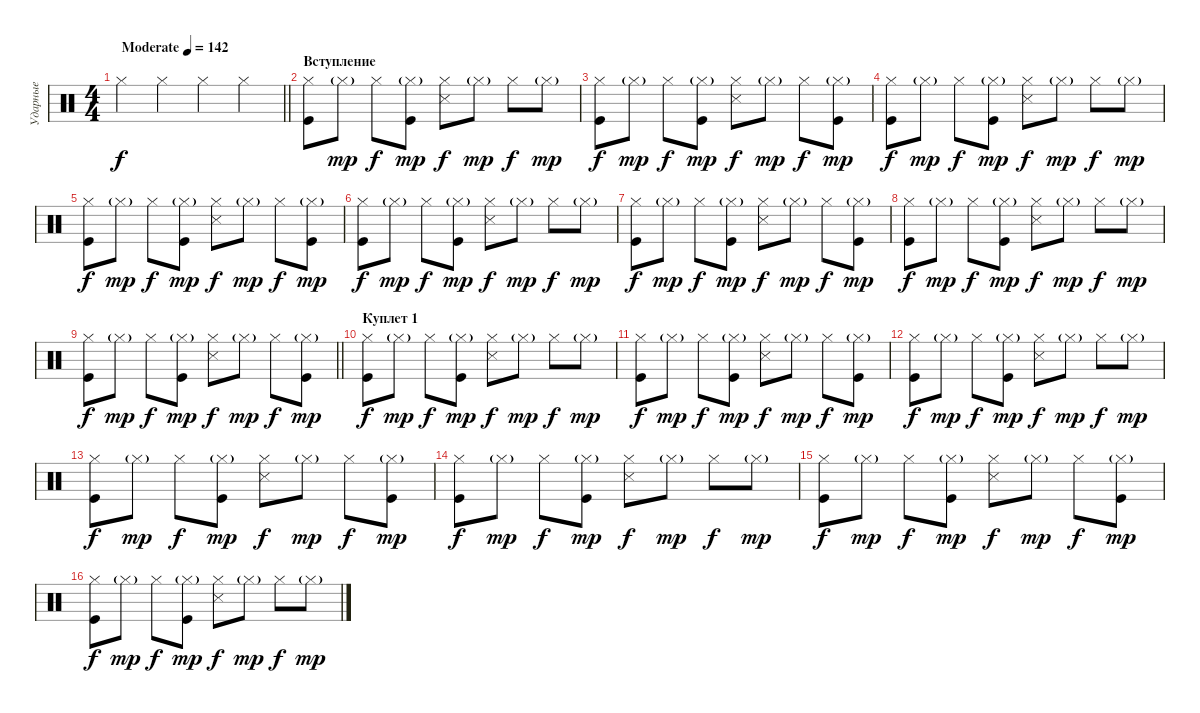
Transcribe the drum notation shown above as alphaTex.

\track ("Ударные" "Ударные") {instrument percussion}
\staff {score}
\articulation defaults
\ts (4 4)
\tempo (142 "Moderate")
\clef neutral
\barLineRight lightlight
\ks c "Hi-Hat (closed)".4{dy f} "Hi-Hat (closed)".4 "Hi-Hat (closed)".4 "Hi-Hat (closed)".4
|
\section ("" "Вступление")
("Hi-Hat (closed)" "Kick (hit)").8 "Hi-Hat (closed)"{g}.8{dy mp} "Hi-Hat (closed)".8{dy f} ("Hi-Hat (closed)"{g} "Kick (hit)").8{dy mp} ("Hi-Hat (closed)" "Snare (side stick) 3").8{dy f} "Hi-Hat (closed)"{g}.8{dy mp} "Hi-Hat (closed)".8{dy f} "Hi-Hat (closed)"{g}.8{dy mp} |
("Hi-Hat (closed)" "Kick (hit)").8{dy f} "Hi-Hat (closed)"{g}.8{dy mp} "Hi-Hat (closed)".8{dy f} ("Hi-Hat (closed)"{g} "Kick (hit)").8{dy mp} ("Hi-Hat (closed)" "Snare (side stick) 3").8{dy f} "Hi-Hat (closed)"{g}.8{dy mp} "Hi-Hat (closed)".8{dy f} ("Hi-Hat (closed)"{g} "Kick (hit)").8{dy mp} |
("Hi-Hat (closed)" "Kick (hit)").8{dy f} "Hi-Hat (closed)"{g}.8{dy mp} "Hi-Hat (closed)".8{dy f} ("Hi-Hat (closed)"{g} "Kick (hit)").8{dy mp} ("Hi-Hat (closed)" "Snare (side stick) 3").8{dy f} "Hi-Hat (closed)"{g}.8{dy mp} "Hi-Hat (closed)".8{dy f} "Hi-Hat (closed)"{g}.8{dy mp} |
("Hi-Hat (closed)" "Kick (hit)").8{dy f} "Hi-Hat (closed)"{g}.8{dy mp} "Hi-Hat (closed)".8{dy f} ("Hi-Hat (closed)"{g} "Kick (hit)").8{dy mp} ("Hi-Hat (closed)" "Snare (side stick) 3").8{dy f} "Hi-Hat (closed)"{g}.8{dy mp} "Hi-Hat (closed)".8{dy f} ("Hi-Hat (closed)"{g} "Kick (hit)").8{dy mp} |
("Hi-Hat (closed)" "Kick (hit)").8{dy f} "Hi-Hat (closed)"{g}.8{dy mp} "Hi-Hat (closed)".8{dy f} ("Hi-Hat (closed)"{g} "Kick (hit)").8{dy mp} ("Hi-Hat (closed)" "Snare (side stick) 3").8{dy f} "Hi-Hat (closed)"{g}.8{dy mp} "Hi-Hat (closed)".8{dy f} "Hi-Hat (closed)"{g}.8{dy mp} |
("Hi-Hat (closed)" "Kick (hit)").8{dy f} "Hi-Hat (closed)"{g}.8{dy mp} "Hi-Hat (closed)".8{dy f} ("Hi-Hat (closed)"{g} "Kick (hit)").8{dy mp} ("Hi-Hat (closed)" "Snare (side stick) 3").8{dy f} "Hi-Hat (closed)"{g}.8{dy mp} "Hi-Hat (closed)".8{dy f} ("Hi-Hat (closed)"{g} "Kick (hit)").8{dy mp} |
("Hi-Hat (closed)" "Kick (hit)").8{dy f} "Hi-Hat (closed)"{g}.8{dy mp} "Hi-Hat (closed)".8{dy f} ("Hi-Hat (closed)"{g} "Kick (hit)").8{dy mp} ("Hi-Hat (closed)" "Snare (side stick) 3").8{dy f} "Hi-Hat (closed)"{g}.8{dy mp} "Hi-Hat (closed)".8{dy f} "Hi-Hat (closed)"{g}.8{dy mp} |
\barLineRight lightlight
("Hi-Hat (closed)" "Kick (hit)").8{dy f} "Hi-Hat (closed)"{g}.8{dy mp} "Hi-Hat (closed)".8{dy f} ("Hi-Hat (closed)"{g} "Kick (hit)").8{dy mp} ("Hi-Hat (closed)" "Snare (side stick) 3").8{dy f} "Hi-Hat (closed)"{g}.8{dy mp} "Hi-Hat (closed)".8{dy f} ("Hi-Hat (closed)"{g} "Kick (hit)").8{dy mp} |
\section ("" "Куплет 1")
("Hi-Hat (closed)" "Kick (hit)").8{dy f} "Hi-Hat (closed)"{g}.8{dy mp} "Hi-Hat (closed)".8{dy f} ("Hi-Hat (closed)"{g} "Kick (hit)").8{dy mp} ("Hi-Hat (closed)" "Snare (side stick) 3").8{dy f} "Hi-Hat (closed)"{g}.8{dy mp} "Hi-Hat (closed)".8{dy f} "Hi-Hat (closed)"{g}.8{dy mp} |
("Hi-Hat (closed)" "Kick (hit)").8{dy f} "Hi-Hat (closed)"{g}.8{dy mp} "Hi-Hat (closed)".8{dy f} ("Hi-Hat (closed)"{g} "Kick (hit)").8{dy mp} ("Hi-Hat (closed)" "Snare (side stick) 3").8{dy f} "Hi-Hat (closed)"{g}.8{dy mp} "Hi-Hat (closed)".8{dy f} ("Hi-Hat (closed)"{g} "Kick (hit)").8{dy mp} |
("Hi-Hat (closed)" "Kick (hit)").8{dy f} "Hi-Hat (closed)"{g}.8{dy mp} "Hi-Hat (closed)".8{dy f} ("Hi-Hat (closed)"{g} "Kick (hit)").8{dy mp} ("Hi-Hat (closed)" "Snare (side stick) 3").8{dy f} "Hi-Hat (closed)"{g}.8{dy mp} "Hi-Hat (closed)".8{dy f} "Hi-Hat (closed)"{g}.8{dy mp} |
("Hi-Hat (closed)" "Kick (hit)").8{dy f} "Hi-Hat (closed)"{g}.8{dy mp} "Hi-Hat (closed)".8{dy f} ("Hi-Hat (closed)"{g} "Kick (hit)").8{dy mp} ("Hi-Hat (closed)" "Snare (side stick) 3").8{dy f} "Hi-Hat (closed)"{g}.8{dy mp} "Hi-Hat (closed)".8{dy f} ("Hi-Hat (closed)"{g} "Kick (hit)").8{dy mp} |
("Hi-Hat (closed)" "Kick (hit)").8{dy f} "Hi-Hat (closed)"{g}.8{dy mp} "Hi-Hat (closed)".8{dy f} ("Hi-Hat (closed)"{g} "Kick (hit)").8{dy mp} ("Hi-Hat (closed)" "Snare (side stick) 3").8{dy f} "Hi-Hat (closed)"{g}.8{dy mp} "Hi-Hat (closed)".8{dy f} "Hi-Hat (closed)"{g}.8{dy mp} |
("Hi-Hat (closed)" "Kick (hit)").8{dy f} "Hi-Hat (closed)"{g}.8{dy mp} "Hi-Hat (closed)".8{dy f} ("Hi-Hat (closed)"{g} "Kick (hit)").8{dy mp} ("Hi-Hat (closed)" "Snare (side stick) 3").8{dy f} "Hi-Hat (closed)"{g}.8{dy mp} "Hi-Hat (closed)".8{dy f} ("Hi-Hat (closed)"{g} "Kick (hit)").8{dy mp} |
("Hi-Hat (closed)" "Kick (hit)").8{dy f} "Hi-Hat (closed)"{g}.8{dy mp} "Hi-Hat (closed)".8{dy f} ("Hi-Hat (closed)"{g} "Kick (hit)").8{dy mp} ("Hi-Hat (closed)" "Snare (side stick) 3").8{dy f} "Hi-Hat (closed)"{g}.8{dy mp} "Hi-Hat (closed)".8{dy f} "Hi-Hat (closed)"{g}.8{dy mp}
